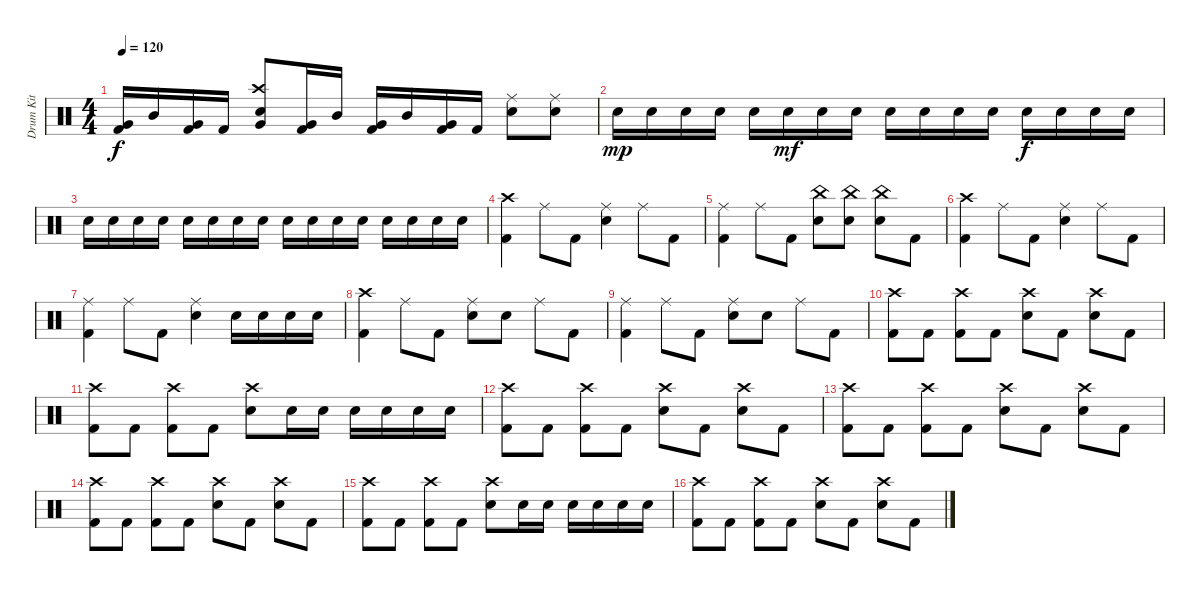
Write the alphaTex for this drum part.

\track ("Drum Kit" "Drum Kit") {instrument percussion}
\staff {score}
\articulation defaults
\ts (4 4)
\tempo 120
\clef neutral
\ks c
("Very Low Tom (hit)" "Kick (hit) 2").16{dy f} "Mid Tom (hit)".16 ("Very Low Tom (hit)" "Kick (hit) 2").16 "Kick (hit) 2".16 ("Crash high (hit)" "Very Low Tom (hit)" "Snare (hit) 2").8 ("Very Low Tom (hit)" "Kick (hit) 2").16 "Mid Tom (hit)".16 ("Very Low Tom (hit)" "Kick (hit) 2").16 "Mid Tom (hit)".16 ("Very Low Tom (hit)" "Kick (hit) 2").16 "Kick (hit) 2".16 ("Ride (middle)" "Snare (hit) 2").8 ("Ride (middle)" "Snare (hit) 2").8 |
"Snare (hit) 2".16{dy mp} "Snare (hit) 2".16 "Snare (hit) 2".16 "Snare (hit) 2".16 "Snare (hit) 2".16 "Snare (hit) 2".16{dy mf} "Snare (hit) 2".16 "Snare (hit) 2".16 "Snare (hit) 2".16 "Snare (hit) 2".16 "Snare (hit) 2".16 "Snare (hit) 2".16 "Snare (hit) 2".16{dy f} "Snare (hit) 2".16 "Snare (hit) 2".16 "Snare (hit) 2".16 |
"Snare (hit) 2".16 "Snare (hit) 2".16 "Snare (hit) 2".16 "Snare (hit) 2".16 "Snare (hit) 2".16 "Snare (hit) 2".16 "Snare (hit) 2".16 "Snare (hit) 2".16 "Snare (hit) 2".16 "Snare (hit) 2".16 "Snare (hit) 2".16 "Snare (hit) 2".16 "Snare (hit) 2".16 "Snare (hit) 2".16 "Snare (hit) 2".16 "Snare (hit) 2".16 |
("Crash high (hit)" "Kick (hit) 2").4 "Ride (middle)".8 "Kick (hit) 2".8 ("Ride (middle)" "Snare (hit) 2").4 "Ride (middle)".8 "Kick (hit) 2".8 |
("Ride (middle)" "Kick (hit) 2").4 "Ride (middle)".8 "Kick (hit) 2".8 ("China (hit)" "Snare (hit) 2").8 ("China (hit)" "Snare (hit) 2").8 ("China (hit)" "Snare (hit) 2").8 "Kick (hit) 2".8 |
("Crash high (hit)" "Kick (hit) 2").4 "Ride (middle)".8 "Kick (hit) 2".8 ("Ride (middle)" "Snare (hit) 2").4 "Ride (middle)".8 "Kick (hit) 2".8 |
("Ride (middle)" "Kick (hit) 2").4 "Ride (middle)".8 "Kick (hit) 2".8 ("Ride (middle)" "Snare (hit) 2").4 "Snare (hit) 2".16 "Snare (hit) 2".16 "Snare (hit) 2".16 "Snare (hit) 2".16 |
("Crash high (hit)" "Kick (hit) 2").4 "Ride (middle)".8 "Kick (hit) 2".8 ("Ride (middle)" "Snare (hit) 2").8 "Snare (hit) 2".8 "Ride (middle)".8 "Kick (hit) 2".8 |
("Ride (middle)" "Kick (hit) 2").4 "Ride (middle)".8 "Kick (hit) 2".8 ("Ride (middle)" "Snare (hit) 2").8 "Snare (hit) 2".8 "Ride (middle)".8 "Kick (hit) 2".8 |
("Crash high (hit)" "Kick (hit) 2").8 "Kick (hit) 2".8 ("Crash high (hit)" "Kick (hit) 2").8 "Kick (hit) 2".8 ("Crash high (hit)" "Snare (hit) 2").8 "Kick (hit) 2".8 ("Crash high (hit)" "Snare (hit) 2").8 "Kick (hit) 2".8 |
("Crash high (hit)" "Kick (hit) 2").8 "Kick (hit) 2".8 ("Crash high (hit)" "Kick (hit) 2").8 "Kick (hit) 2".8 ("Crash high (hit)" "Snare (hit) 2").8 "Snare (hit) 2".16 "Snare (hit) 2".16 "Snare (hit) 2".16 "Snare (hit) 2".16 "Snare (hit) 2".16 "Snare (hit) 2".16 |
("Crash high (hit)" "Kick (hit) 2").8 "Kick (hit) 2".8 ("Crash high (hit)" "Kick (hit) 2").8 "Kick (hit) 2".8 ("Crash high (hit)" "Snare (hit) 2").8 "Kick (hit) 2".8 ("Crash high (hit)" "Snare (hit) 2").8 "Kick (hit) 2".8 |
("Crash high (hit)" "Kick (hit) 2").8 "Kick (hit) 2".8 ("Crash high (hit)" "Kick (hit) 2").8 "Kick (hit) 2".8 ("Crash high (hit)" "Snare (hit) 2").8 "Kick (hit) 2".8 ("Crash high (hit)" "Snare (hit) 2").8 "Kick (hit) 2".8 |
("Crash high (hit)" "Kick (hit) 2").8 "Kick (hit) 2".8 ("Crash high (hit)" "Kick (hit) 2").8 "Kick (hit) 2".8 ("Crash high (hit)" "Snare (hit) 2").8 "Kick (hit) 2".8 ("Crash high (hit)" "Snare (hit) 2").8 "Kick (hit) 2".8 |
("Crash high (hit)" "Kick (hit) 2").8 "Kick (hit) 2".8 ("Crash high (hit)" "Kick (hit) 2").8 "Kick (hit) 2".8 ("Crash high (hit)" "Snare (hit) 2").8 "Snare (hit) 2".16 "Snare (hit) 2".16 "Snare (hit) 2".16 "Snare (hit) 2".16 "Snare (hit) 2".16 "Snare (hit) 2".16 |
("Crash high (hit)" "Kick (hit) 2").8 "Kick (hit) 2".8 ("Crash high (hit)" "Kick (hit) 2").8 "Kick (hit) 2".8 ("Crash high (hit)" "Snare (hit) 2").8 "Kick (hit) 2".8 ("Crash high (hit)" "Snare (hit) 2").8 "Kick (hit) 2".8
